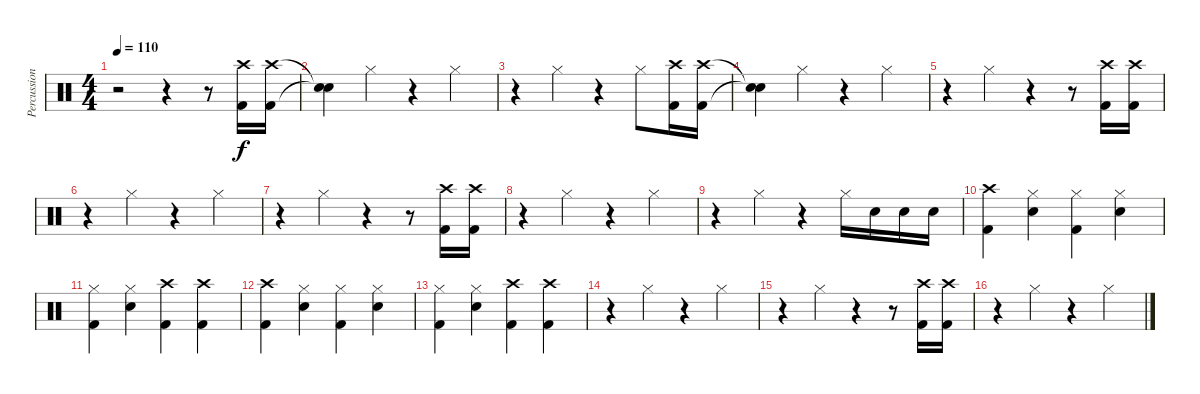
\track ("Percussion" "Percussion") {instrument percussion}
\staff {score}
\articulation defaults
\ts (4 4)
\tempo 110
\clef neutral
\ks c
r.2{dy f} r.4 r.8 ("Crash high (hit)" "Kick (hit) 2").16 ("Crash high (hit)" "Kick (hit) 2").16 |
("Snare (hit)"{t} "Snare (hit)"{t}).4 "Hi-Hat (closed)".4 r.4 "Hi-Hat (closed)".4 |
r.4 "Hi-Hat (closed)".4 r.4 "Hi-Hat (closed)".8 ("Crash high (hit)" "Kick (hit) 2").16 ("Crash high (hit)" "Kick (hit) 2").16 |
("Snare (hit)"{t} "Snare (hit)"{t}).4 "Hi-Hat (closed)".4 r.4 "Hi-Hat (closed)".4 |
r.4 "Hi-Hat (closed)".4 r.4 r.8 ("Crash high (hit)" "Kick (hit) 2").16 ("Crash high (hit)" "Kick (hit) 2").16 |
r.4 "Hi-Hat (closed)".4 r.4 "Hi-Hat (closed)".4 |
r.4 "Hi-Hat (closed)".4 r.4 r.8 ("Crash high (hit)" "Kick (hit) 2").16 ("Crash high (hit)" "Kick (hit) 2").16 |
r.4 "Hi-Hat (closed)".4 r.4 "Hi-Hat (closed)".4 |
r.4 "Hi-Hat (closed)".4 r.4 "Hi-Hat (closed)".16 "Snare (hit) 2".16 "Snare (hit) 2".16 "Snare (hit) 2".16 |
("Crash high (hit)" "Kick (hit) 2").4 ("Hi-Hat (closed)" "Snare (hit) 2").4 ("Hi-Hat (closed)" "Kick (hit) 2").4 ("Hi-Hat (closed)" "Snare (hit) 2").4 |
("Hi-Hat (closed)" "Kick (hit) 2").4 ("Hi-Hat (closed)" "Snare (hit) 2").4 ("Crash high (hit)" "Kick (hit) 2").4 ("Crash high (hit)" "Kick (hit) 2").4 |
("Crash high (hit)" "Kick (hit) 2").4 ("Hi-Hat (closed)" "Snare (hit) 2").4 ("Hi-Hat (closed)" "Kick (hit) 2").4 ("Hi-Hat (closed)" "Snare (hit) 2").4 |
("Hi-Hat (closed)" "Kick (hit) 2").4 ("Hi-Hat (closed)" "Snare (hit) 2").4 ("Crash high (hit)" "Kick (hit) 2").4 ("Crash high (hit)" "Kick (hit) 2").4 |
r.4 "Hi-Hat (closed)".4 r.4 "Hi-Hat (closed)".4 |
r.4 "Hi-Hat (closed)".4 r.4 r.8 ("Crash high (hit)" "Kick (hit) 2").16 ("Crash high (hit)" "Kick (hit) 2").16 |
r.4 "Hi-Hat (closed)".4 r.4 "Hi-Hat (closed)".4
